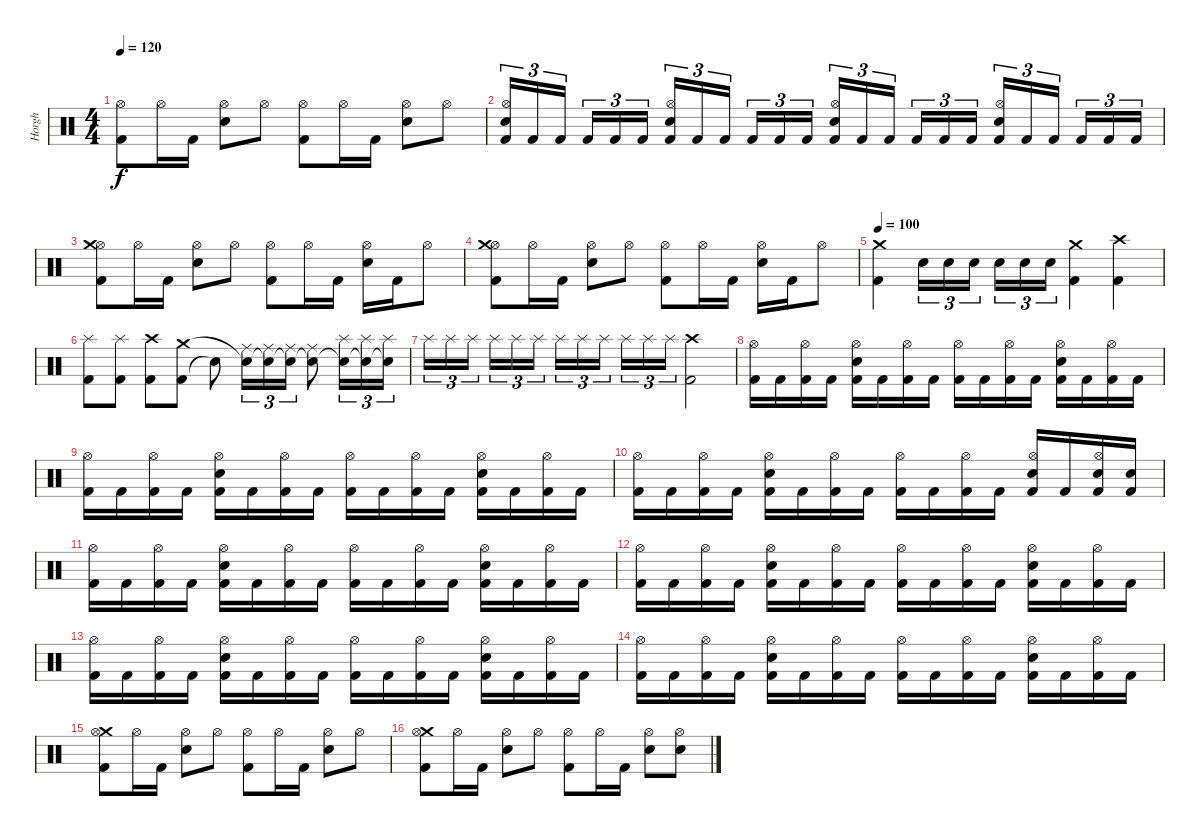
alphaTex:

\track ("Horgh" "Horgh") {instrument percussion}
\staff {score}
\articulation defaults
\ts (4 4)
\tempo 120
\clef neutral
\ks c
("Kick (hit) 2" "Hi-Hat (open)").8{dy f} "Hi-Hat (open)".16 "Kick (hit) 2".16 ("Electric Snare (hit)" "Hi-Hat (open)").8 "Hi-Hat (open)".8 ("Kick (hit) 2" "Hi-Hat (open)").8 "Hi-Hat (open)".16 "Kick (hit) 2".16 ("Electric Snare (hit)" "Hi-Hat (open)").8 "Hi-Hat (open)".8 |
("Kick (hit) 2" "Electric Snare (hit)" "Hi-Hat (open)").16{tu (3 2)} "Kick (hit) 2".16{tu (3 2)} "Kick (hit) 2".16{tu (3 2) beam splitsecondary} "Kick (hit) 2".16{tu (3 2)} "Kick (hit) 2".16{tu (3 2)} "Kick (hit) 2".16{tu (3 2)} ("Kick (hit) 2" "Electric Snare (hit)" "Hi-Hat (open)").16{tu (3 2)} "Kick (hit) 2".16{tu (3 2)} "Kick (hit) 2".16{tu (3 2) beam splitsecondary} "Kick (hit) 2".16{tu (3 2)} "Kick (hit) 2".16{tu (3 2)} "Kick (hit) 2".16{tu (3 2)} ("Kick (hit) 2" "Electric Snare (hit)" "Hi-Hat (open)").16{tu (3 2)} "Kick (hit) 2".16{tu (3 2)} "Kick (hit) 2".16{tu (3 2) beam splitsecondary} "Kick (hit) 2".16{tu (3 2)} "Kick (hit) 2".16{tu (3 2)} "Kick (hit) 2".16{tu (3 2)} ("Kick (hit) 2" "Electric Snare (hit)" "Hi-Hat (open)").16{tu (3 2)} "Kick (hit) 2".16{tu (3 2)} "Kick (hit) 2".16{tu (3 2) beam splitsecondary} "Kick (hit) 2".16{tu (3 2)} "Kick (hit) 2".16{tu (3 2)} "Kick (hit) 2".16{tu (3 2)} |
("Kick (hit) 2" "Hi-Hat (open)" "Crash medium (hit)").8 "Hi-Hat (open)".16 "Kick (hit) 2".16 ("Electric Snare (hit)" "Hi-Hat (open)").8 "Hi-Hat (open)".8 ("Kick (hit) 2" "Hi-Hat (open)").8 "Hi-Hat (open)".16 "Kick (hit) 2".16 ("Electric Snare (hit)" "Hi-Hat (open)").16 "Kick (hit) 2".16 "Hi-Hat (open)".8 |
("Kick (hit) 2" "Hi-Hat (open)" "Crash medium (hit)").8 "Hi-Hat (open)".16 "Kick (hit) 2".16 ("Electric Snare (hit)" "Hi-Hat (open)").8 "Hi-Hat (open)".8 ("Kick (hit) 2" "Hi-Hat (open)").8 "Hi-Hat (open)".16 "Kick (hit) 2".16 ("Electric Snare (hit)" "Hi-Hat (open)").16 "Kick (hit) 2".16 "Hi-Hat (open)".8 |
\tempo 100
("Kick (hit) 2" "Crash medium (hit)").4 "Snare (hit) 2".16{tu (3 2)} "Snare (hit) 2".16{tu (3 2)} "Snare (hit) 2".16{tu (3 2) beam splitsecondary} "Snare (hit) 2".16{tu (3 2)} "Snare (hit) 2".16{tu (3 2)} "Snare (hit) 2".16{tu (3 2)} ("Kick (hit) 2" "Crash medium (hit)").4 ("Kick (hit) 2" "Crash high (hit)").4 |
("Kick (hit) 2" "Splash (hit)").8 ("Kick (hit) 2" "Splash (hit)").8 ("Kick (hit) 2" "Crash high (hit)").8 ("Kick (hit) 2" "Crash medium (hit)").8 "Snare (hit)"{t}.8 ("Ride (middle)" "Snare (hit)"{t}).16{tu (3 2)} ("Ride (middle)" "Snare (hit)"{t}).16{tu (3 2)} ("Ride (middle)" "Snare (hit)"{t}).16{tu (3 2)} ("Ride (middle)" "Snare (hit)"{t}).8 ("Splash (hit)" "Snare (hit)"{t}).16{tu (3 2)} ("Splash (hit)" "Snare (hit)"{t}).16{tu (3 2)} ("Splash (hit)" "Snare (hit)"{t}).16{tu (3 2)} |
"Splash (hit)".16{tu (3 2)} "Splash (hit)".16{tu (3 2)} "Splash (hit)".16{tu (3 2) beam splitsecondary} "Splash (hit)".16{tu (3 2)} "Splash (hit)".16{tu (3 2)} "Splash (hit)".16{tu (3 2)} "Splash (hit)".16{tu (3 2)} "Splash (hit)".16{tu (3 2)} "Splash (hit)".16{tu (3 2) beam splitsecondary} "Splash (hit)".16{tu (3 2)} "Splash (hit)".16{tu (3 2)} "Splash (hit)".16{tu (3 2)} ("Kick (hit) 2" "Crash high (hit)").2 |
("Hi-Hat (open)" "Kick (hit) 2").16 "Kick (hit) 2".16 ("Hi-Hat (open)" "Kick (hit) 2").16 "Kick (hit) 2".16 ("Hi-Hat (open)" "Electric Snare (hit)" "Kick (hit) 2").16 "Kick (hit) 2".16 ("Hi-Hat (open)" "Kick (hit) 2").16 "Kick (hit) 2".16 ("Hi-Hat (open)" "Kick (hit) 2").16 "Kick (hit) 2".16 ("Hi-Hat (open)" "Kick (hit) 2").16 "Kick (hit) 2".16 ("Hi-Hat (open)" "Electric Snare (hit)" "Kick (hit) 2").16 "Kick (hit) 2".16 ("Hi-Hat (open)" "Kick (hit) 2").16 "Kick (hit) 2".16 |
("Hi-Hat (open)" "Kick (hit) 2").16 "Kick (hit) 2".16 ("Hi-Hat (open)" "Kick (hit) 2").16 "Kick (hit) 2".16 ("Hi-Hat (open)" "Electric Snare (hit)" "Kick (hit) 2").16 "Kick (hit) 2".16 ("Hi-Hat (open)" "Kick (hit) 2").16 "Kick (hit) 2".16 ("Hi-Hat (open)" "Kick (hit) 2").16 "Kick (hit) 2".16 ("Hi-Hat (open)" "Kick (hit) 2").16 "Kick (hit) 2".16 ("Hi-Hat (open)" "Electric Snare (hit)" "Kick (hit) 2").16 "Kick (hit) 2".16 ("Hi-Hat (open)" "Kick (hit) 2").16 "Kick (hit) 2".16 |
("Hi-Hat (open)" "Kick (hit) 2").16 "Kick (hit) 2".16 ("Hi-Hat (open)" "Kick (hit) 2").16 "Kick (hit) 2".16 ("Hi-Hat (open)" "Electric Snare (hit)" "Kick (hit) 2").16 "Kick (hit) 2".16 ("Hi-Hat (open)" "Kick (hit) 2").16 "Kick (hit) 2".16 ("Hi-Hat (open)" "Kick (hit) 2").16 "Kick (hit) 2".16 ("Hi-Hat (open)" "Kick (hit) 2").16 "Kick (hit) 2".16 ("Hi-Hat (open)" "Electric Snare (hit)" "Kick (hit) 2").16 "Kick (hit) 2".16 ("Hi-Hat (open)" "Electric Snare (hit)" "Kick (hit) 2").16 ("Electric Snare (hit)" "Kick (hit) 2").16 |
("Hi-Hat (open)" "Kick (hit) 2").16 "Kick (hit) 2".16 ("Hi-Hat (open)" "Kick (hit) 2").16 "Kick (hit) 2".16 ("Hi-Hat (open)" "Electric Snare (hit)" "Kick (hit) 2").16 "Kick (hit) 2".16 ("Hi-Hat (open)" "Kick (hit) 2").16 "Kick (hit) 2".16 ("Hi-Hat (open)" "Kick (hit) 2").16 "Kick (hit) 2".16 ("Hi-Hat (open)" "Kick (hit) 2").16 "Kick (hit) 2".16 ("Hi-Hat (open)" "Electric Snare (hit)" "Kick (hit) 2").16 "Kick (hit) 2".16 ("Hi-Hat (open)" "Kick (hit) 2").16 "Kick (hit) 2".16 |
("Hi-Hat (open)" "Kick (hit) 2").16 "Kick (hit) 2".16 ("Hi-Hat (open)" "Kick (hit) 2").16 "Kick (hit) 2".16 ("Hi-Hat (open)" "Electric Snare (hit)" "Kick (hit) 2").16 "Kick (hit) 2".16 ("Hi-Hat (open)" "Kick (hit) 2").16 "Kick (hit) 2".16 ("Hi-Hat (open)" "Kick (hit) 2").16 "Kick (hit) 2".16 ("Hi-Hat (open)" "Kick (hit) 2").16 "Kick (hit) 2".16 ("Hi-Hat (open)" "Electric Snare (hit)" "Kick (hit) 2").16 "Kick (hit) 2".16 ("Hi-Hat (open)" "Kick (hit) 2").16 "Kick (hit) 2".16 |
("Hi-Hat (open)" "Kick (hit) 2").16 "Kick (hit) 2".16 ("Hi-Hat (open)" "Kick (hit) 2").16 "Kick (hit) 2".16 ("Hi-Hat (open)" "Electric Snare (hit)" "Kick (hit) 2").16 "Kick (hit) 2".16 ("Hi-Hat (open)" "Kick (hit) 2").16 "Kick (hit) 2".16 ("Hi-Hat (open)" "Kick (hit) 2").16 "Kick (hit) 2".16 ("Hi-Hat (open)" "Kick (hit) 2").16 "Kick (hit) 2".16 ("Hi-Hat (open)" "Electric Snare (hit)" "Kick (hit) 2").16 "Kick (hit) 2".16 ("Hi-Hat (open)" "Kick (hit) 2").16 "Kick (hit) 2".16 |
("Hi-Hat (open)" "Kick (hit) 2").16 "Kick (hit) 2".16 ("Hi-Hat (open)" "Kick (hit) 2").16 "Kick (hit) 2".16 ("Hi-Hat (open)" "Electric Snare (hit)" "Kick (hit) 2").16 "Kick (hit) 2".16 ("Hi-Hat (open)" "Kick (hit) 2").16 "Kick (hit) 2".16 ("Hi-Hat (open)" "Kick (hit) 2").16 "Kick (hit) 2".16 ("Hi-Hat (open)" "Kick (hit) 2").16 "Kick (hit) 2".16 ("Hi-Hat (open)" "Electric Snare (hit)" "Kick (hit) 2").16 "Kick (hit) 2".16 ("Hi-Hat (open)" "Kick (hit) 2").16 "Kick (hit) 2".16 |
("Crash medium (hit)" "Hi-Hat (open)" "Kick (hit) 2").8 "Hi-Hat (open)".16 "Kick (hit) 2".16 ("Hi-Hat (open)" "Electric Snare (hit)").8 "Hi-Hat (open)".8 ("Hi-Hat (open)" "Kick (hit) 2").8 "Hi-Hat (open)".16 "Kick (hit) 2".16 ("Hi-Hat (open)" "Electric Snare (hit)").8 "Hi-Hat (open)".8 |
("Crash medium (hit)" "Hi-Hat (open)" "Kick (hit) 2").8 "Hi-Hat (open)".16 "Kick (hit) 2".16 ("Hi-Hat (open)" "Electric Snare (hit)").8 "Hi-Hat (open)".8 ("Hi-Hat (open)" "Kick (hit) 2").8 "Hi-Hat (open)".16 "Kick (hit) 2".16 ("Hi-Hat (open)" "Electric Snare (hit)").8 ("Hi-Hat (open)" "Electric Snare (hit)").8
